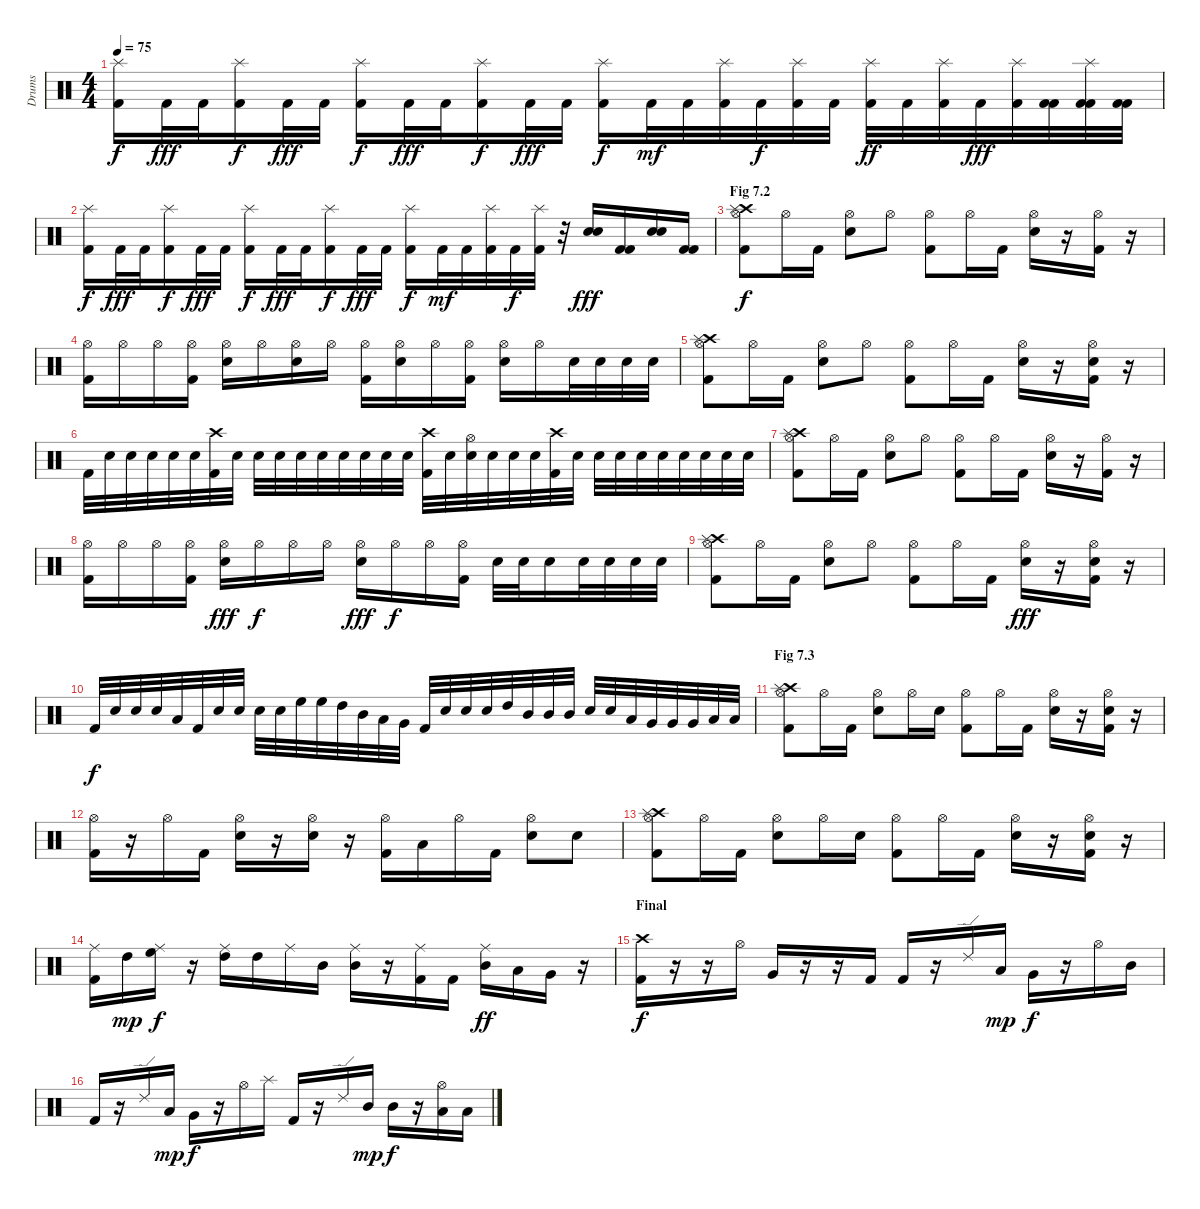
\track ("Drums" "Drums") {instrument percussion}
\staff {score}
\articulation defaults
\ts (4 4)
\tempo 75
\clef neutral
\ks c
("Kick (hit) 2" "Splash (hit)").16{dy f} "Kick (hit) 2".32{dy fff} "Kick (hit) 2".32 ("Kick (hit) 2" "Splash (hit)").16{dy f} "Kick (hit) 2".32{dy fff} "Kick (hit) 2".32 ("Kick (hit) 2" "Splash (hit)").16{dy f} "Kick (hit) 2".32{dy fff} "Kick (hit) 2".32 ("Kick (hit) 2" "Splash (hit)").16{dy f} "Kick (hit) 2".32{dy fff} "Kick (hit) 2".32 ("Kick (hit) 2" "Splash (hit)").16{dy f} "Kick (hit) 2".32{dy mf} "Kick (hit) 2".32 ("Kick (hit) 2" "Splash (hit)").32 "Kick (hit) 2".32{dy f} ("Kick (hit) 2" "Splash (hit)").32 "Kick (hit) 2".32 ("Kick (hit) 2" "Splash (hit)").32{dy ff} "Kick (hit) 2".32 ("Kick (hit) 2" "Splash (hit)").32 "Kick (hit) 2".32{dy fff} ("Kick (hit) 2" "Splash (hit)").32 ("Kick (hit) 2" "Kick (hit) 2").32 ("Kick (hit) 2" "Kick (hit) 2" "Splash (hit)").32 ("Kick (hit) 2" "Kick (hit) 2").32 |
("Kick (hit) 2" "Splash (hit)").16{dy f} "Kick (hit) 2".32{dy fff} "Kick (hit) 2".32 ("Kick (hit) 2" "Splash (hit)").16{dy f} "Kick (hit) 2".32{dy fff} "Kick (hit) 2".32 ("Kick (hit) 2" "Splash (hit)").16{dy f} "Kick (hit) 2".32{dy fff} "Kick (hit) 2".32 ("Kick (hit) 2" "Splash (hit)").16{dy f} "Kick (hit) 2".32{dy fff} "Kick (hit) 2".32 ("Kick (hit) 2" "Splash (hit)").16{dy f} "Kick (hit) 2".32{dy mf} "Kick (hit) 2".32 ("Kick (hit) 2" "Splash (hit)").32 "Kick (hit) 2".32{dy f} ("Kick (hit) 2" "Splash (hit)").32 r.32 ("Snare (hit) 2" "Snare (hit) 2").16{dy fff} ("Kick (hit) 2" "Kick (hit) 2").16 ("Snare (hit) 2" "Snare (hit) 2").16 ("Kick (hit) 2" "Kick (hit) 2").16 |
\section ("" "Fig 7.2")
("Hi-Hat (open)" "Kick (hit) 2" "Crash high (hit)" "Splash (hit)").8{dy f} "Hi-Hat (open)".16 "Kick (hit) 2".16 ("Hi-Hat (open)" "Snare (hit) 2").8 "Hi-Hat (open)".8 ("Hi-Hat (open)" "Kick (hit) 2").8 "Hi-Hat (open)".16 "Kick (hit) 2".16 ("Hi-Hat (open)" "Snare (hit) 2").16 r.16 ("Hi-Hat (open)" "Kick (hit) 2").16 r.16 |
("Hi-Hat (open)" "Kick (hit) 2").16 "Hi-Hat (open)".16 "Hi-Hat (open)".16 ("Hi-Hat (open)" "Kick (hit) 2").16 ("Hi-Hat (open)" "Snare (hit) 2").16 "Hi-Hat (open)".16 ("Hi-Hat (open)" "Snare (hit) 2").16 "Hi-Hat (open)".16 ("Hi-Hat (open)" "Kick (hit) 2").16 ("Hi-Hat (open)" "Snare (hit) 2").16 "Hi-Hat (open)".16 ("Hi-Hat (open)" "Kick (hit) 2").16 ("Hi-Hat (open)" "Snare (hit) 2").16 "Hi-Hat (open)".16 "Snare (hit) 2".32 "Snare (hit) 2".32 "Snare (hit) 2".32 "Snare (hit) 2".32 |
("Hi-Hat (open)" "Kick (hit) 2" "Crash high (hit)" "Splash (hit)").8 "Hi-Hat (open)".16 "Kick (hit) 2".16 ("Hi-Hat (open)" "Snare (hit) 2").8 "Hi-Hat (open)".8 ("Hi-Hat (open)" "Kick (hit) 2").8 "Hi-Hat (open)".16 "Kick (hit) 2".16 ("Hi-Hat (open)" "Snare (hit) 2").16 r.16 ("Hi-Hat (open)" "Kick (hit) 2" "Snare (hit) 2").16 r.16 |
"Kick (hit) 2".32 "Snare (hit) 2".32 "Snare (hit) 2".32 "Snare (hit) 2".32 "Snare (hit) 2".32 "Snare (hit) 2".32 ("Kick (hit) 2" "Crash high (hit)").32 "Snare (hit) 2".32 "Snare (hit) 2".32 "Snare (hit) 2".32 "Snare (hit) 2".32 "Snare (hit) 2".32 "Snare (hit) 2".32 "Snare (hit) 2".32 "Snare (hit) 2".32 "Snare (hit) 2".32 ("Kick (hit) 2" "Crash high (hit)").32 "Snare (hit) 2".32 ("Hi-Hat (open)" "Snare (hit) 2").32 "Snare (hit) 2".32 "Snare (hit) 2".32 "Snare (hit) 2".32 ("Kick (hit) 2" "Crash high (hit)").32 "Snare (hit) 2".32 "Snare (hit) 2".32 "Snare (hit) 2".32 "Snare (hit) 2".32 "Snare (hit) 2".32 "Snare (hit) 2".32 "Snare (hit) 2".32 "Snare (hit) 2".32 "Snare (hit) 2".32 |
("Hi-Hat (open)" "Kick (hit) 2" "Crash high (hit)" "Splash (hit)").8 "Hi-Hat (open)".16 "Kick (hit) 2".16 ("Hi-Hat (open)" "Snare (hit) 2").8 "Hi-Hat (open)".8 ("Hi-Hat (open)" "Kick (hit) 2").8 "Hi-Hat (open)".16 "Kick (hit) 2".16 ("Hi-Hat (open)" "Snare (hit) 2").16 r.16 ("Hi-Hat (open)" "Kick (hit) 2").16 r.16 |
("Hi-Hat (open)" "Kick (hit) 2").16 "Hi-Hat (open)".16 "Hi-Hat (open)".16 ("Hi-Hat (open)" "Kick (hit) 2").16 ("Hi-Hat (open)" "Snare (hit) 2").16{dy fff} "Hi-Hat (open)".16{dy f} "Hi-Hat (open)".16 "Hi-Hat (open)".16 ("Hi-Hat (open)" "Snare (hit) 2").16{dy fff} "Hi-Hat (open)".16{dy f} "Hi-Hat (open)".16 ("Hi-Hat (open)" "Kick (hit) 2").16 "Snare (hit) 2".32 "Snare (hit) 2".32 "Snare (hit) 2".16 "Snare (hit) 2".32 "Snare (hit) 2".32 "Snare (hit) 2".32 "Snare (hit) 2".32 |
("Hi-Hat (open)" "Kick (hit) 2" "Crash high (hit)" "Splash (hit)").8 "Hi-Hat (open)".16 "Kick (hit) 2".16 ("Hi-Hat (open)" "Snare (hit) 2").8 "Hi-Hat (open)".8 ("Hi-Hat (open)" "Kick (hit) 2").8 "Hi-Hat (open)".16 "Kick (hit) 2".16 ("Hi-Hat (open)" "Snare (hit) 2").16{dy fff} r.16 ("Hi-Hat (open)" "Kick (hit) 2" "Snare (hit) 2").16 r.16 |
"Kick (hit) 2".32{dy f} "Snare (hit) 2".32 "Snare (hit) 2".32 "Snare (hit) 2".32 "Low Tom (hit)".32 "Kick (hit) 2".32 "Snare (hit) 2".32 "Snare (hit) 2".32 "Snare (hit) 2".32 "Snare (hit) 2".32 "High Floor Tom (hit)".32 "High Floor Tom (hit)".32 "High Tom (hit)".32 "Mid Tom (hit)".32 "Low Tom (hit)".32 "Very Low Tom (hit)".32 "Kick (hit) 2".32 "Snare (hit) 2".32 "Snare (hit) 2".32 "Snare (hit) 2".32 "High Tom (hit)".32 "Mid Tom (hit)".32 "Mid Tom (hit)".32 "Mid Tom (hit)".32 "Snare (hit) 2".32 "Snare (hit) 2".32 "Low Tom (hit)".32 "Very Low Tom (hit)".32 "Very Low Tom (hit)".32 "Very Low Tom (hit)".32 "Low Floor Tom (hit)".32 "Low Floor Tom (hit)".32 |
\section ("" "Fig 7.3")
("Hi-Hat (open)" "Kick (hit) 2" "Crash high (hit)" "Splash (hit)").8 "Hi-Hat (open)".16 "Kick (hit) 2".16 ("Hi-Hat (open)" "Snare (hit) 2").8 "Hi-Hat (open)".16 "Snare (hit) 2".16 ("Hi-Hat (open)" "Kick (hit) 2").8 "Hi-Hat (open)".16 "Kick (hit) 2".16 ("Hi-Hat (open)" "Snare (hit) 2").16 r.16 ("Hi-Hat (open)" "Kick (hit) 2" "Snare (hit) 2").16 r.16 |
("Hi-Hat (open)" "Kick (hit) 2").16 r.16 "Hi-Hat (open)".16 "Kick (hit) 2".16 ("Hi-Hat (open)" "Snare (hit) 2").16 r.16 ("Hi-Hat (open)" "Snare (hit) 2").16 r.16 ("Hi-Hat (open)" "Kick (hit) 2").16 "Low Tom (hit)".16 "Hi-Hat (open)".16 "Kick (hit) 2".16 ("Hi-Hat (open)" "Snare (hit) 2").8 "Snare (hit) 2".8 |
("Hi-Hat (open)" "Kick (hit) 2" "Crash high (hit)" "Splash (hit)").8 "Hi-Hat (open)".16 "Kick (hit) 2".16 ("Hi-Hat (open)" "Snare (hit) 2").8 "Hi-Hat (open)".16 "Snare (hit) 2".16 ("Hi-Hat (open)" "Kick (hit) 2").8 "Hi-Hat (open)".16 "Kick (hit) 2".16 ("Hi-Hat (open)" "Snare (hit) 2").16 r.16 ("Hi-Hat (open)" "Kick (hit) 2" "Snare (hit) 2").16 r.16 |
("Kick (hit) 2" "Ride (middle)").16 "High Tom (hit)".16{dy mp} ("High Floor Tom (hit)" "Ride (middle)").16{dy f} r.16 ("High Tom (hit)" "Ride (middle)").16 "High Tom (hit)".16 "Ride (middle)".16 "Mid Tom (hit)".16 ("Mid Tom (hit)" "Ride (middle)").16 r.16 ("Kick (hit) 2" "Ride (middle)").16 "Kick (hit) 2".16 ("Mid Tom (hit)" "Ride (middle)").16{dy ff} "Low Tom (hit)".16 "Very Low Tom (hit)".16 r.16 |
\section ("" "Final")
("Kick (hit) 2" "Crash high (hit)").16{dy f} r.16 r.16 "Hi-Hat (open)".16 "Very Low Tom (hit)".16 r.16 r.16 "Kick (hit) 2".16 "Kick (hit) 2".16 r.16 "Ride (edge) 2".16 "Low Tom (hit)".16{dy mp} "Very Low Tom (hit)".16{dy f} r.16 "Hi-Hat (open)".16 "Mid Tom (hit)".16 |
"Kick (hit) 2".16 r.16 "Ride (edge) 2".16 "Low Tom (hit)".16{dy mp} "Very Low Tom (hit)".16{dy f} r.16 "Hi-Hat (open)".16 "Splash (hit)".16 "Kick (hit) 2".16 r.16 "Ride (edge) 2".16 "Mid Tom (hit)".16{dy mp} "Mid Tom (hit)".16{dy f} r.16 ("Hi-Hat (open)" "Low Tom (hit)").16 "Low Tom (hit)".16
